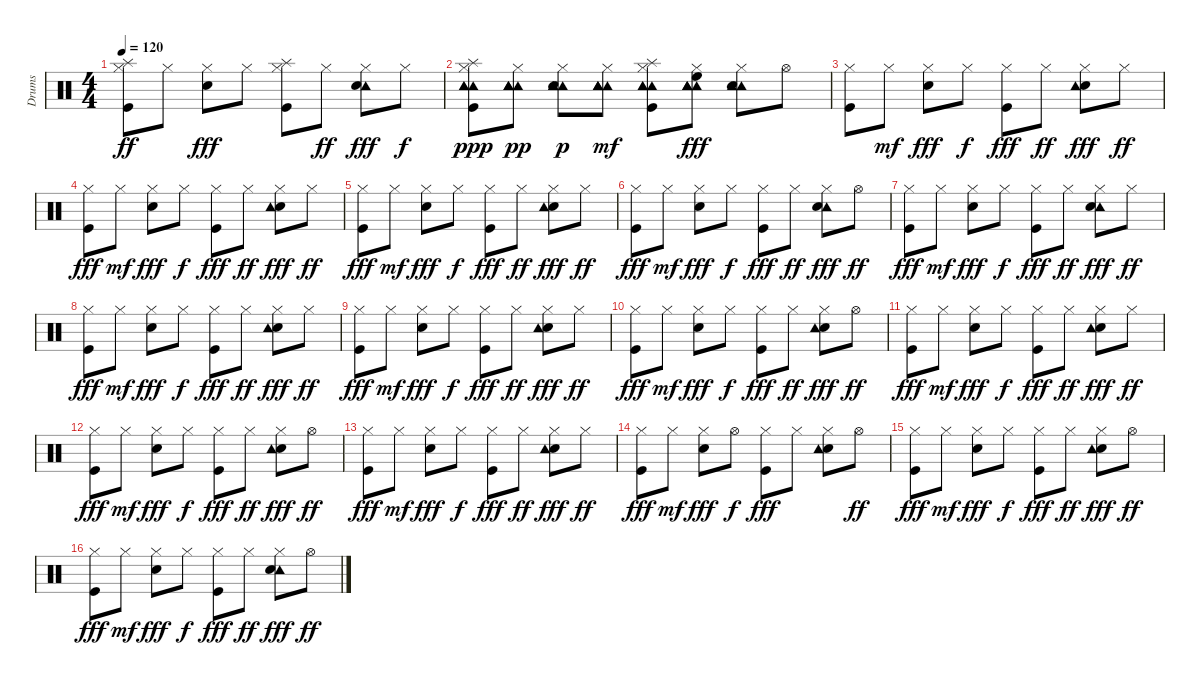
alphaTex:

\track ("Drums " "Drums ") {instrument percussion}
\staff {score}
\articulation defaults
\ts (4 4)
\tempo 120
\clef neutral
\ks c
("Hi-Hat (closed)" "Kick (hit)" "Splash (hit)").8{dy ff} "Hi-Hat (closed)".8 ("Electric Snare (hit)" "Hi-Hat (closed)").8{dy fff} "Hi-Hat (closed)".8 ("Splash (hit)" "Hi-Hat (closed)" "Kick (hit)").8 "Hi-Hat (closed)".8{dy ff} ("Tambourine (hit)" "Hi-Hat (closed)" "Electric Snare (hit)").8{dy fff} "Hi-Hat (closed)".8{dy f} |
("Tambourine (hit)" "Hi-Hat (closed)" "Kick (hit)" "Splash (hit)" "Tambourine (hit)" "Tambourine (hit)").8{dy ppp} ("Tambourine (hit)" "Hi-Hat (closed)" "Tambourine (hit)" "Tambourine (hit)" "Tambourine (hit)").8{dy pp} ("Tambourine (hit)" "Hi-Hat (closed)" "Electric Snare (hit)" "Tambourine (hit)" "Tambourine (hit)" "Tambourine (hit)").8{dy p} ("Tambourine (hit)" "Hi-Hat (closed)" "Tambourine (hit)" "Tambourine (hit)" "Tambourine (hit)").8{dy mf} ("Tambourine (hit)" "Kick (hit)" "Splash (hit)" "Hi-Hat (closed)" "Tambourine (hit)" "Tambourine (hit)").8 ("Tambourine (hit)" "High Floor Tom (hit)" "Hi-Hat (closed)" "Tambourine (hit)" "Tambourine (hit)" "Tambourine (hit)").8{dy fff} ("Tambourine (hit)" "Hi-Hat (closed)" "Electric Snare (hit)" "Tambourine (hit)").8 "Hi-Hat (open)".8 |
("Hi-Hat (closed)" "Kick (hit)").8 "Hi-Hat (closed)".8{dy mf} ("Hi-Hat (closed)" "Electric Snare (hit)").8{dy fff} "Hi-Hat (closed)".8{dy f} ("Hi-Hat (closed)" "Kick (hit)").8{dy fff} "Hi-Hat (closed)".8{dy ff} ("Electric Snare (hit)" "Tambourine (hit)" "Hi-Hat (closed)").8{dy fff} "Hi-Hat (closed)".8{dy ff} |
("Hi-Hat (closed)" "Kick (hit)").8{dy fff} "Hi-Hat (closed)".8{dy mf} ("Electric Snare (hit)" "Hi-Hat (closed)").8{dy fff} "Hi-Hat (closed)".8{dy f} ("Hi-Hat (closed)" "Kick (hit)").8{dy fff} "Hi-Hat (closed)".8{dy ff} ("Electric Snare (hit)" "Tambourine (hit)" "Hi-Hat (closed)").8{dy fff} "Hi-Hat (closed)".8{dy ff} |
("Hi-Hat (closed)" "Kick (hit)").8{dy fff} "Hi-Hat (closed)".8{dy mf} ("Hi-Hat (closed)" "Electric Snare (hit)").8{dy fff} "Hi-Hat (closed)".8{dy f} ("Hi-Hat (closed)" "Kick (hit)").8{dy fff} "Hi-Hat (closed)".8{dy ff} ("Electric Snare (hit)" "Tambourine (hit)" "Hi-Hat (closed)").8{dy fff} "Hi-Hat (closed)".8{dy ff} |
("Hi-Hat (closed)" "Kick (hit)").8{dy fff} "Hi-Hat (closed)".8{dy mf} ("Hi-Hat (closed)" "Electric Snare (hit)").8{dy fff} "Hi-Hat (closed)".8{dy f} ("Hi-Hat (closed)" "Kick (hit)").8{dy fff} "Hi-Hat (closed)".8{dy ff} ("Tambourine (hit)" "Hi-Hat (closed)" "Electric Snare (hit)").8{dy fff} "Hi-Hat (open)".8{dy ff} |
("Hi-Hat (closed)" "Kick (hit)").8{dy fff} "Hi-Hat (closed)".8{dy mf} ("Hi-Hat (closed)" "Electric Snare (hit)").8{dy fff} "Hi-Hat (closed)".8{dy f} ("Hi-Hat (closed)" "Kick (hit)").8{dy fff} "Hi-Hat (closed)".8{dy ff} ("Tambourine (hit)" "Hi-Hat (closed)" "Electric Snare (hit)").8{dy fff} "Hi-Hat (closed)".8{dy ff} |
("Hi-Hat (closed)" "Kick (hit)").8{dy fff} "Hi-Hat (closed)".8{dy mf} ("Hi-Hat (closed)" "Electric Snare (hit)").8{dy fff} "Hi-Hat (closed)".8{dy f} ("Hi-Hat (closed)" "Kick (hit)").8{dy fff} "Hi-Hat (closed)".8{dy ff} ("Electric Snare (hit)" "Tambourine (hit)" "Hi-Hat (closed)").8{dy fff} "Hi-Hat (closed)".8{dy ff} |
("Hi-Hat (closed)" "Kick (hit)").8{dy fff} "Hi-Hat (closed)".8{dy mf} ("Electric Snare (hit)" "Hi-Hat (closed)").8{dy fff} "Hi-Hat (closed)".8{dy f} ("Hi-Hat (closed)" "Kick (hit)").8{dy fff} "Hi-Hat (closed)".8{dy ff} ("Electric Snare (hit)" "Tambourine (hit)" "Hi-Hat (closed)").8{dy fff} "Hi-Hat (closed)".8{dy ff} |
("Hi-Hat (closed)" "Kick (hit)").8{dy fff} "Hi-Hat (closed)".8{dy mf} ("Hi-Hat (closed)" "Electric Snare (hit)").8{dy fff} "Hi-Hat (closed)".8{dy f} ("Hi-Hat (closed)" "Kick (hit)").8{dy fff} "Hi-Hat (closed)".8{dy ff} ("Electric Snare (hit)" "Tambourine (hit)" "Hi-Hat (closed)").8{dy fff} "Hi-Hat (open)".8{dy ff} |
("Hi-Hat (closed)" "Kick (hit)").8{dy fff} "Hi-Hat (closed)".8{dy mf} ("Hi-Hat (closed)" "Electric Snare (hit)").8{dy fff} "Hi-Hat (closed)".8{dy f} ("Hi-Hat (closed)" "Kick (hit)").8{dy fff} "Hi-Hat (closed)".8{dy ff} ("Electric Snare (hit)" "Tambourine (hit)" "Hi-Hat (closed)").8{dy fff} "Hi-Hat (closed)".8{dy ff} |
("Hi-Hat (closed)" "Kick (hit)").8{dy fff} "Hi-Hat (closed)".8{dy mf} ("Electric Snare (hit)" "Hi-Hat (closed)").8{dy fff} "Hi-Hat (closed)".8{dy f} ("Hi-Hat (closed)" "Kick (hit)").8{dy fff} "Hi-Hat (closed)".8{dy ff} ("Electric Snare (hit)" "Tambourine (hit)" "Hi-Hat (closed)").8{dy fff} "Hi-Hat (open)".8{dy ff} |
("Hi-Hat (closed)" "Kick (hit)").8{dy fff} "Hi-Hat (closed)".8{dy mf} ("Hi-Hat (closed)" "Electric Snare (hit)").8{dy fff} "Hi-Hat (closed)".8{dy f} ("Hi-Hat (closed)" "Kick (hit)").8{dy fff} "Hi-Hat (closed)".8{dy ff} ("Electric Snare (hit)" "Tambourine (hit)" "Hi-Hat (closed)").8{dy fff} "Hi-Hat (closed)".8{dy ff} |
("Hi-Hat (closed)" "Kick (hit)").8{dy fff} "Hi-Hat (closed)".8{dy mf} ("Hi-Hat (closed)" "Electric Snare (hit)").8{dy fff} "Hi-Hat (open)".8{dy f} ("Kick (hit)" "Hi-Hat (closed)").8{dy fff} "Hi-Hat (closed)".8 ("Electric Snare (hit)" "Tambourine (hit)" "Hi-Hat (closed)").8 "Hi-Hat (open)".8{dy ff} |
("Hi-Hat (closed)" "Kick (hit)").8{dy fff} "Hi-Hat (closed)".8{dy mf} ("Hi-Hat (closed)" "Electric Snare (hit)").8{dy fff} "Hi-Hat (closed)".8{dy f} ("Hi-Hat (closed)" "Kick (hit)").8{dy fff} "Hi-Hat (closed)".8{dy ff} ("Electric Snare (hit)" "Tambourine (hit)" "Hi-Hat (closed)").8{dy fff} "Hi-Hat (open)".8{dy ff} |
("Hi-Hat (closed)" "Kick (hit)").8{dy fff} "Hi-Hat (closed)".8{dy mf} ("Hi-Hat (closed)" "Electric Snare (hit)").8{dy fff} "Hi-Hat (closed)".8{dy f} ("Hi-Hat (closed)" "Kick (hit)").8{dy fff} "Hi-Hat (closed)".8{dy ff} ("Tambourine (hit)" "Hi-Hat (closed)" "Electric Snare (hit)").8{dy fff} "Hi-Hat (open)".8{dy ff}
